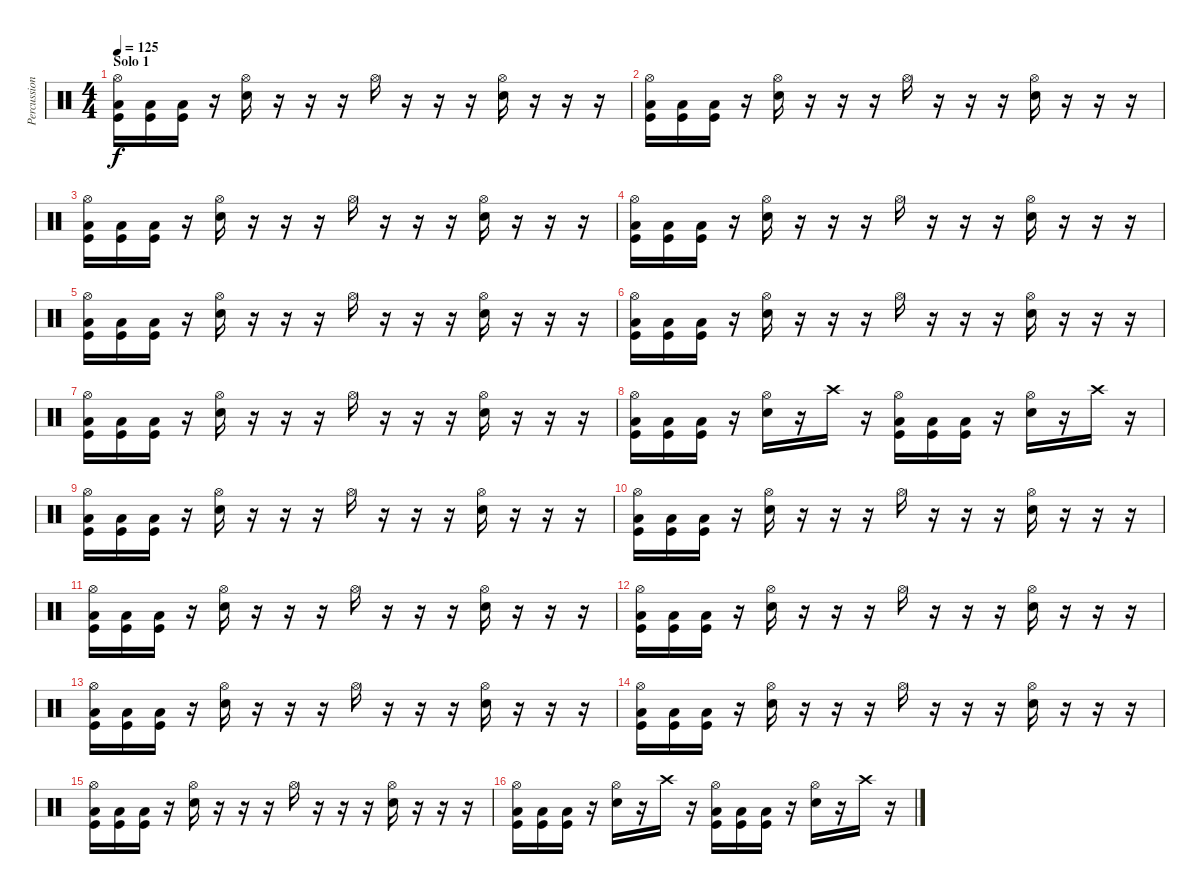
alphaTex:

\track ("Percussion" "Percussion") {instrument percussion}
\staff {score}
\articulation defaults
\ts (4 4)
\section ("" "Solo 1")
\tempo 125
\clef neutral
\ks c
("Hi-Hat (open)" "Low Floor Tom (hit)" "Kick (hit)").16{dy f} ("Low Floor Tom (hit)" "Kick (hit)").16 ("Low Floor Tom (hit)" "Kick (hit)").16 r.16 ("Hi-Hat (open)" "Electric Snare (hit)").16 r.16 r.16 r.16 "Hi-Hat (open)".16 r.16 r.16 r.16 ("Hi-Hat (open)" "Electric Snare (hit)").16 r.16 r.16 r.16 |
("Hi-Hat (open)" "Low Floor Tom (hit)" "Kick (hit)").16 ("Low Floor Tom (hit)" "Kick (hit)").16 ("Low Floor Tom (hit)" "Kick (hit)").16 r.16 ("Hi-Hat (open)" "Electric Snare (hit)").16 r.16 r.16 r.16 "Hi-Hat (open)".16 r.16 r.16 r.16 ("Hi-Hat (open)" "Electric Snare (hit)").16 r.16 r.16 r.16 |
("Hi-Hat (open)" "Low Floor Tom (hit)" "Kick (hit)").16 ("Low Floor Tom (hit)" "Kick (hit)").16 ("Low Floor Tom (hit)" "Kick (hit)").16 r.16 ("Hi-Hat (open)" "Electric Snare (hit)").16 r.16 r.16 r.16 "Hi-Hat (open)".16 r.16 r.16 r.16 ("Hi-Hat (open)" "Electric Snare (hit)").16 r.16 r.16 r.16 |
("Hi-Hat (open)" "Low Floor Tom (hit)" "Kick (hit)").16 ("Low Floor Tom (hit)" "Kick (hit)").16 ("Low Floor Tom (hit)" "Kick (hit)").16 r.16 ("Hi-Hat (open)" "Electric Snare (hit)").16 r.16 r.16 r.16 "Hi-Hat (open)".16 r.16 r.16 r.16 ("Hi-Hat (open)" "Electric Snare (hit)").16 r.16 r.16 r.16 |
("Hi-Hat (open)" "Low Floor Tom (hit)" "Kick (hit)").16 ("Low Floor Tom (hit)" "Kick (hit)").16 ("Low Floor Tom (hit)" "Kick (hit)").16 r.16 ("Hi-Hat (open)" "Electric Snare (hit)").16 r.16 r.16 r.16 "Hi-Hat (open)".16 r.16 r.16 r.16 ("Hi-Hat (open)" "Electric Snare (hit)").16 r.16 r.16 r.16 |
("Hi-Hat (open)" "Low Floor Tom (hit)" "Kick (hit)").16 ("Low Floor Tom (hit)" "Kick (hit)").16 ("Low Floor Tom (hit)" "Kick (hit)").16 r.16 ("Hi-Hat (open)" "Electric Snare (hit)").16 r.16 r.16 r.16 "Hi-Hat (open)".16 r.16 r.16 r.16 ("Hi-Hat (open)" "Electric Snare (hit)").16 r.16 r.16 r.16 |
("Hi-Hat (open)" "Low Floor Tom (hit)" "Kick (hit)").16 ("Low Floor Tom (hit)" "Kick (hit)").16 ("Low Floor Tom (hit)" "Kick (hit)").16 r.16 ("Hi-Hat (open)" "Electric Snare (hit)").16 r.16 r.16 r.16 "Hi-Hat (open)".16 r.16 r.16 r.16 ("Hi-Hat (open)" "Electric Snare (hit)").16 r.16 r.16 r.16 |
("Hi-Hat (open)" "Low Floor Tom (hit)" "Kick (hit)").16 ("Low Floor Tom (hit)" "Kick (hit)").16 ("Low Floor Tom (hit)" "Kick (hit)").16 r.16 ("Hi-Hat (open)" "Electric Snare (hit)").16 r.16 "Crash high (hit)".16 r.16 ("Hi-Hat (open)" "Low Floor Tom (hit)" "Kick (hit)").16 ("Low Floor Tom (hit)" "Kick (hit)").16 ("Low Floor Tom (hit)" "Kick (hit)").16 r.16 ("Hi-Hat (open)" "Electric Snare (hit)").16 r.16 "Crash high (hit)".16 r.16 |
("Hi-Hat (open)" "Low Floor Tom (hit)" "Kick (hit)").16 ("Low Floor Tom (hit)" "Kick (hit)").16 ("Low Floor Tom (hit)" "Kick (hit)").16 r.16 ("Hi-Hat (open)" "Electric Snare (hit)").16 r.16 r.16 r.16 "Hi-Hat (open)".16 r.16 r.16 r.16 ("Hi-Hat (open)" "Electric Snare (hit)").16 r.16 r.16 r.16 |
("Hi-Hat (open)" "Low Floor Tom (hit)" "Kick (hit)").16 ("Low Floor Tom (hit)" "Kick (hit)").16 ("Low Floor Tom (hit)" "Kick (hit)").16 r.16 ("Hi-Hat (open)" "Electric Snare (hit)").16 r.16 r.16 r.16 "Hi-Hat (open)".16 r.16 r.16 r.16 ("Hi-Hat (open)" "Electric Snare (hit)").16 r.16 r.16 r.16 |
("Hi-Hat (open)" "Low Floor Tom (hit)" "Kick (hit)").16 ("Low Floor Tom (hit)" "Kick (hit)").16 ("Low Floor Tom (hit)" "Kick (hit)").16 r.16 ("Hi-Hat (open)" "Electric Snare (hit)").16 r.16 r.16 r.16 "Hi-Hat (open)".16 r.16 r.16 r.16 ("Hi-Hat (open)" "Electric Snare (hit)").16 r.16 r.16 r.16 |
("Hi-Hat (open)" "Low Floor Tom (hit)" "Kick (hit)").16 ("Low Floor Tom (hit)" "Kick (hit)").16 ("Low Floor Tom (hit)" "Kick (hit)").16 r.16 ("Hi-Hat (open)" "Electric Snare (hit)").16 r.16 r.16 r.16 "Hi-Hat (open)".16 r.16 r.16 r.16 ("Hi-Hat (open)" "Electric Snare (hit)").16 r.16 r.16 r.16 |
("Hi-Hat (open)" "Low Floor Tom (hit)" "Kick (hit)").16 ("Low Floor Tom (hit)" "Kick (hit)").16 ("Low Floor Tom (hit)" "Kick (hit)").16 r.16 ("Hi-Hat (open)" "Electric Snare (hit)").16 r.16 r.16 r.16 "Hi-Hat (open)".16 r.16 r.16 r.16 ("Hi-Hat (open)" "Electric Snare (hit)").16 r.16 r.16 r.16 |
("Hi-Hat (open)" "Low Floor Tom (hit)" "Kick (hit)").16 ("Low Floor Tom (hit)" "Kick (hit)").16 ("Low Floor Tom (hit)" "Kick (hit)").16 r.16 ("Hi-Hat (open)" "Electric Snare (hit)").16 r.16 r.16 r.16 "Hi-Hat (open)".16 r.16 r.16 r.16 ("Hi-Hat (open)" "Electric Snare (hit)").16 r.16 r.16 r.16 |
("Hi-Hat (open)" "Low Floor Tom (hit)" "Kick (hit)").16 ("Low Floor Tom (hit)" "Kick (hit)").16 ("Low Floor Tom (hit)" "Kick (hit)").16 r.16 ("Hi-Hat (open)" "Electric Snare (hit)").16 r.16 r.16 r.16 "Hi-Hat (open)".16 r.16 r.16 r.16 ("Hi-Hat (open)" "Electric Snare (hit)").16 r.16 r.16 r.16 |
("Hi-Hat (open)" "Low Floor Tom (hit)" "Kick (hit)").16 ("Low Floor Tom (hit)" "Kick (hit)").16 ("Low Floor Tom (hit)" "Kick (hit)").16 r.16 ("Hi-Hat (open)" "Electric Snare (hit)").16 r.16 "Crash high (hit)".16 r.16 ("Hi-Hat (open)" "Low Floor Tom (hit)" "Kick (hit)").16 ("Low Floor Tom (hit)" "Kick (hit)").16 ("Low Floor Tom (hit)" "Kick (hit)").16 r.16 ("Hi-Hat (open)" "Electric Snare (hit)").16 r.16 "Crash high (hit)".16 r.16
